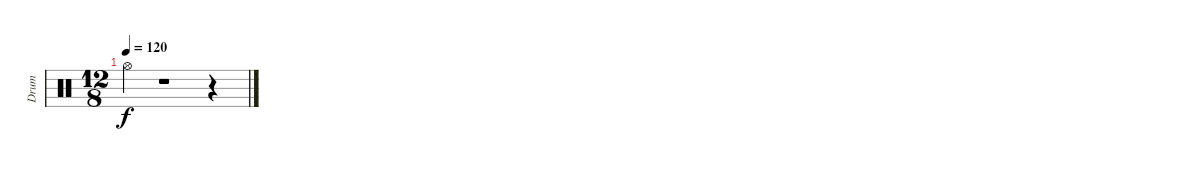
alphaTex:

\track ("Drum" "Drum") {instrument percussion}
\staff {score}
\articulation defaults
\ts (12 8)
\tempo 120
\clef neutral
\ks c "Hi-Hat (open)".4{dy f}
r.1 r.4
